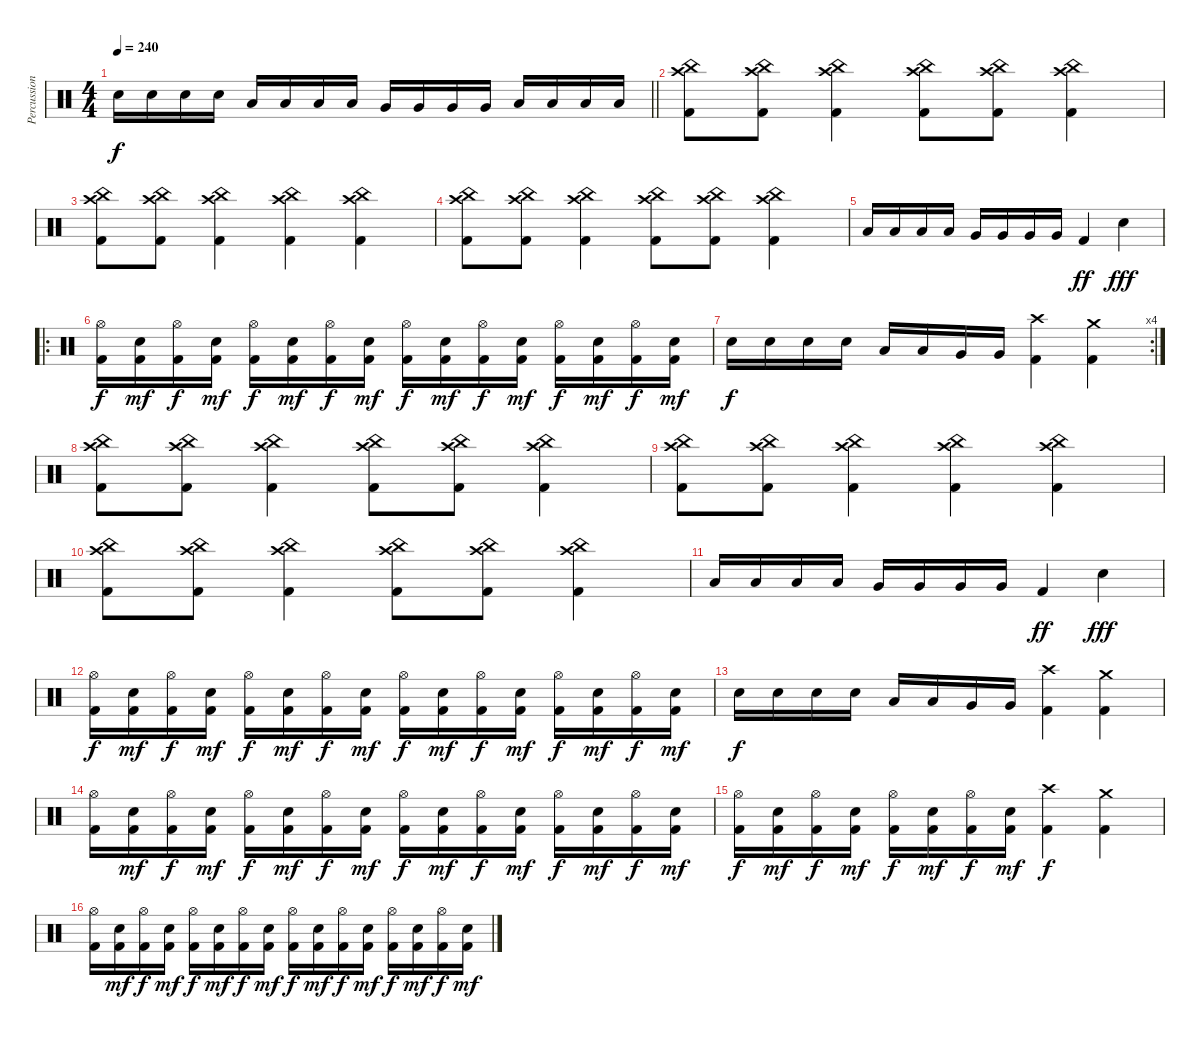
\track ("Percussion" "Percussion") {instrument percussion}
\staff {score}
\articulation defaults
\ts (4 4)
\tempo 240
\clef neutral
\barLineRight lightlight
\ks c "Snare (hit) 2".16{dy f} "Snare (hit) 2".16 "Snare (hit) 2".16 "Snare (hit) 2".16 "Low Tom (hit)".16 "Low Tom (hit)".16 "Low Tom (hit)".16 "Low Tom (hit)".16 "Very Low Tom (hit)".16 "Very Low Tom (hit)".16 "Very Low Tom (hit)".16 "Very Low Tom (hit)".16 "Low Floor Tom (hit)".16 "Low Floor Tom (hit)".16 "Low Floor Tom (hit)".16 "Low Floor Tom (hit)".16
|
("China (hit)" "Crash high (hit)" "Kick (hit) 2").8 ("China (hit)" "Crash high (hit)" "Kick (hit) 2").8 ("China (hit)" "Crash high (hit)" "Kick (hit) 2").4 ("China (hit)" "Crash high (hit)" "Kick (hit) 2").8 ("China (hit)" "Crash high (hit)" "Kick (hit) 2").8 ("China (hit)" "Crash high (hit)" "Kick (hit) 2").4 |
("China (hit)" "Crash high (hit)" "Kick (hit) 2").8 ("China (hit)" "Crash high (hit)" "Kick (hit) 2").8 ("China (hit)" "Crash high (hit)" "Kick (hit) 2").4 ("China (hit)" "Crash high (hit)" "Kick (hit) 2").4 ("China (hit)" "Crash high (hit)" "Kick (hit) 2").4 |
("China (hit)" "Crash high (hit)" "Kick (hit) 2").8 ("China (hit)" "Crash high (hit)" "Kick (hit) 2").8 ("China (hit)" "Crash high (hit)" "Kick (hit) 2").4 ("China (hit)" "Crash high (hit)" "Kick (hit) 2").8 ("China (hit)" "Crash high (hit)" "Kick (hit) 2").8 ("China (hit)" "Crash high (hit)" "Kick (hit) 2").4 |
"Low Tom (hit)".16 "Low Tom (hit)".16 "Low Tom (hit)".16 "Low Tom (hit)".16 "Very Low Tom (hit)".16 "Very Low Tom (hit)".16 "Very Low Tom (hit)".16 "Very Low Tom (hit)".16 "Kick (hit) 2".4{dy ff} "Snare (hit) 2".4{dy fff} |
\ro
("Hi-Hat (open)" "Kick (hit) 2").16{dy f} ("Snare (hit) 2" "Kick (hit) 2").16{dy mf} ("Hi-Hat (open)" "Kick (hit) 2").16{dy f} ("Snare (hit) 2" "Kick (hit) 2").16{dy mf} ("Hi-Hat (open)" "Kick (hit) 2").16{dy f} ("Snare (hit) 2" "Kick (hit) 2").16{dy mf} ("Hi-Hat (open)" "Kick (hit) 2").16{dy f} ("Snare (hit) 2" "Kick (hit) 2").16{dy mf} ("Hi-Hat (open)" "Kick (hit) 2").16{dy f} ("Snare (hit) 2" "Kick (hit) 2").16{dy mf} ("Hi-Hat (open)" "Kick (hit) 2").16{dy f} ("Snare (hit) 2" "Kick (hit) 2").16{dy mf} ("Hi-Hat (open)" "Kick (hit) 2").16{dy f} ("Snare (hit) 2" "Kick (hit) 2").16{dy mf} ("Hi-Hat (open)" "Kick (hit) 2").16{dy f} ("Snare (hit) 2" "Kick (hit) 2").16{dy mf} |
\rc 4 "Snare (hit) 2".16{dy f} "Snare (hit) 2".16 "Snare (hit) 2".16 "Snare (hit) 2".16 "Low Tom (hit)".16 "Low Tom (hit)".16 "Very Low Tom (hit)".16 "Very Low Tom (hit)".16
("Crash high (hit)" "Kick (hit) 2").4 ("Crash medium (hit)" "Kick (hit) 2").4 |
("China (hit)" "Crash high (hit)" "Kick (hit) 2").8 ("China (hit)" "Crash high (hit)" "Kick (hit) 2").8 ("China (hit)" "Crash high (hit)" "Kick (hit) 2").4 ("China (hit)" "Crash high (hit)" "Kick (hit) 2").8 ("China (hit)" "Crash high (hit)" "Kick (hit) 2").8 ("China (hit)" "Crash high (hit)" "Kick (hit) 2").4 |
("China (hit)" "Crash high (hit)" "Kick (hit) 2").8 ("China (hit)" "Crash high (hit)" "Kick (hit) 2").8 ("China (hit)" "Crash high (hit)" "Kick (hit) 2").4 ("China (hit)" "Crash high (hit)" "Kick (hit) 2").4 ("China (hit)" "Crash high (hit)" "Kick (hit) 2").4 |
("China (hit)" "Crash high (hit)" "Kick (hit) 2").8 ("China (hit)" "Crash high (hit)" "Kick (hit) 2").8 ("China (hit)" "Crash high (hit)" "Kick (hit) 2").4 ("China (hit)" "Crash high (hit)" "Kick (hit) 2").8 ("China (hit)" "Crash high (hit)" "Kick (hit) 2").8 ("China (hit)" "Crash high (hit)" "Kick (hit) 2").4 |
"Low Tom (hit)".16 "Low Tom (hit)".16 "Low Tom (hit)".16 "Low Tom (hit)".16 "Very Low Tom (hit)".16 "Very Low Tom (hit)".16 "Very Low Tom (hit)".16 "Very Low Tom (hit)".16 "Kick (hit) 2".4{dy ff} "Snare (hit) 2".4{dy fff} |
("Hi-Hat (open)" "Kick (hit) 2").16{dy f} ("Snare (hit) 2" "Kick (hit) 2").16{dy mf} ("Hi-Hat (open)" "Kick (hit) 2").16{dy f} ("Snare (hit) 2" "Kick (hit) 2").16{dy mf} ("Hi-Hat (open)" "Kick (hit) 2").16{dy f} ("Snare (hit) 2" "Kick (hit) 2").16{dy mf} ("Hi-Hat (open)" "Kick (hit) 2").16{dy f} ("Snare (hit) 2" "Kick (hit) 2").16{dy mf} ("Hi-Hat (open)" "Kick (hit) 2").16{dy f} ("Snare (hit) 2" "Kick (hit) 2").16{dy mf} ("Hi-Hat (open)" "Kick (hit) 2").16{dy f} ("Snare (hit) 2" "Kick (hit) 2").16{dy mf} ("Hi-Hat (open)" "Kick (hit) 2").16{dy f} ("Snare (hit) 2" "Kick (hit) 2").16{dy mf} ("Hi-Hat (open)" "Kick (hit) 2").16{dy f} ("Snare (hit) 2" "Kick (hit) 2").16{dy mf} |
"Snare (hit) 2".16{dy f} "Snare (hit) 2".16 "Snare (hit) 2".16 "Snare (hit) 2".16 "Low Tom (hit)".16 "Low Tom (hit)".16 "Very Low Tom (hit)".16 "Very Low Tom (hit)".16 ("Crash high (hit)" "Kick (hit) 2").4 ("Crash medium (hit)" "Kick (hit) 2").4 |
("Hi-Hat (open)" "Kick (hit) 2").16 ("Snare (hit) 2" "Kick (hit) 2").16{dy mf} ("Hi-Hat (open)" "Kick (hit) 2").16{dy f} ("Snare (hit) 2" "Kick (hit) 2").16{dy mf} ("Hi-Hat (open)" "Kick (hit) 2").16{dy f} ("Snare (hit) 2" "Kick (hit) 2").16{dy mf} ("Hi-Hat (open)" "Kick (hit) 2").16{dy f} ("Snare (hit) 2" "Kick (hit) 2").16{dy mf} ("Hi-Hat (open)" "Kick (hit) 2").16{dy f} ("Snare (hit) 2" "Kick (hit) 2").16{dy mf} ("Hi-Hat (open)" "Kick (hit) 2").16{dy f} ("Snare (hit) 2" "Kick (hit) 2").16{dy mf} ("Hi-Hat (open)" "Kick (hit) 2").16{dy f} ("Snare (hit) 2" "Kick (hit) 2").16{dy mf} ("Hi-Hat (open)" "Kick (hit) 2").16{dy f} ("Snare (hit) 2" "Kick (hit) 2").16{dy mf} |
("Hi-Hat (open)" "Kick (hit) 2").16{dy f} ("Snare (hit) 2" "Kick (hit) 2").16{dy mf} ("Hi-Hat (open)" "Kick (hit) 2").16{dy f} ("Snare (hit) 2" "Kick (hit) 2").16{dy mf} ("Hi-Hat (open)" "Kick (hit) 2").16{dy f} ("Snare (hit) 2" "Kick (hit) 2").16{dy mf} ("Hi-Hat (open)" "Kick (hit) 2").16{dy f} ("Snare (hit) 2" "Kick (hit) 2").16{dy mf} ("Crash high (hit)" "Kick (hit) 2").4{dy f} ("Crash medium (hit)" "Kick (hit) 2").4 |
("Hi-Hat (open)" "Kick (hit) 2").16 ("Snare (hit) 2" "Kick (hit) 2").16{dy mf} ("Hi-Hat (open)" "Kick (hit) 2").16{dy f} ("Snare (hit) 2" "Kick (hit) 2").16{dy mf} ("Hi-Hat (open)" "Kick (hit) 2").16{dy f} ("Snare (hit) 2" "Kick (hit) 2").16{dy mf} ("Hi-Hat (open)" "Kick (hit) 2").16{dy f} ("Snare (hit) 2" "Kick (hit) 2").16{dy mf} ("Hi-Hat (open)" "Kick (hit) 2").16{dy f} ("Snare (hit) 2" "Kick (hit) 2").16{dy mf} ("Hi-Hat (open)" "Kick (hit) 2").16{dy f} ("Snare (hit) 2" "Kick (hit) 2").16{dy mf} ("Hi-Hat (open)" "Kick (hit) 2").16{dy f} ("Snare (hit) 2" "Kick (hit) 2").16{dy mf} ("Hi-Hat (open)" "Kick (hit) 2").16{dy f} ("Snare (hit) 2" "Kick (hit) 2").16{dy mf}
